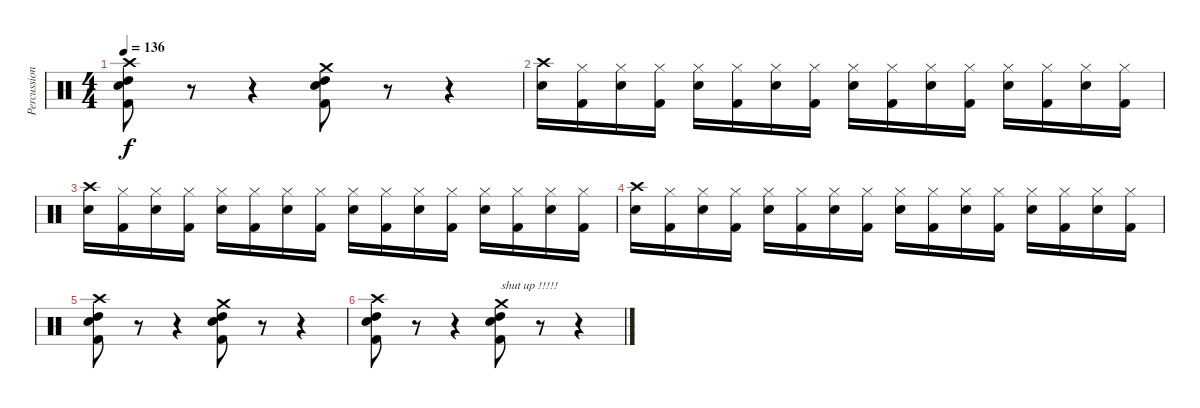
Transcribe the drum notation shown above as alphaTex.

\track ("Percussion" "Percussion") {instrument percussion}
\staff {score}
\articulation defaults
\ts (4 4)
\tempo 136
\clef neutral
\ks c
("Crash high (hit)" "Snare (hit) 2" "Kick (hit) 2" "High Tom (hit)").8{dy f} r.8 r.4 ("Crash medium (hit)" "Snare (hit) 2" "Kick (hit) 2" "High Tom (hit)").8 r.8 r.4 |
("Crash high (hit)" "Snare (hit) 2").16 ("Hi-Hat (closed)" "Kick (hit) 2").16 ("Hi-Hat (closed)" "Snare (hit) 2").16 ("Hi-Hat (closed)" "Kick (hit) 2").16 ("Hi-Hat (closed)" "Snare (hit) 2").16 ("Hi-Hat (closed)" "Kick (hit) 2").16 ("Hi-Hat (closed)" "Snare (hit) 2").16 ("Hi-Hat (closed)" "Kick (hit) 2").16 ("Hi-Hat (closed)" "Snare (hit) 2").16 ("Hi-Hat (closed)" "Kick (hit) 2").16 ("Hi-Hat (closed)" "Snare (hit) 2").16 ("Hi-Hat (closed)" "Kick (hit) 2").16 ("Hi-Hat (closed)" "Snare (hit) 2").16 ("Hi-Hat (closed)" "Kick (hit) 2").16 ("Hi-Hat (closed)" "Snare (hit) 2").16 ("Hi-Hat (closed)" "Kick (hit) 2").16 |
("Crash high (hit)" "Snare (hit) 2").16 ("Hi-Hat (closed)" "Kick (hit) 2").16 ("Hi-Hat (closed)" "Snare (hit) 2").16 ("Hi-Hat (closed)" "Kick (hit) 2").16 ("Hi-Hat (closed)" "Snare (hit) 2").16 ("Hi-Hat (closed)" "Kick (hit) 2").16 ("Hi-Hat (closed)" "Snare (hit) 2").16 ("Hi-Hat (closed)" "Kick (hit) 2").16 ("Hi-Hat (closed)" "Snare (hit) 2").16 ("Hi-Hat (closed)" "Kick (hit) 2").16 ("Hi-Hat (closed)" "Snare (hit) 2").16 ("Hi-Hat (closed)" "Kick (hit) 2").16 ("Hi-Hat (closed)" "Snare (hit) 2").16 ("Hi-Hat (closed)" "Kick (hit) 2").16 ("Hi-Hat (closed)" "Snare (hit) 2").16 ("Hi-Hat (closed)" "Kick (hit) 2").16 |
("Crash high (hit)" "Snare (hit) 2").16 ("Hi-Hat (closed)" "Kick (hit) 2").16 ("Hi-Hat (closed)" "Snare (hit) 2").16 ("Hi-Hat (closed)" "Kick (hit) 2").16 ("Hi-Hat (closed)" "Snare (hit) 2").16 ("Hi-Hat (closed)" "Kick (hit) 2").16 ("Hi-Hat (closed)" "Snare (hit) 2").16 ("Hi-Hat (closed)" "Kick (hit) 2").16 ("Hi-Hat (closed)" "Snare (hit) 2").16 ("Hi-Hat (closed)" "Kick (hit) 2").16 ("Hi-Hat (closed)" "Snare (hit) 2").16 ("Hi-Hat (closed)" "Kick (hit) 2").16 ("Hi-Hat (closed)" "Snare (hit) 2").16 ("Hi-Hat (closed)" "Kick (hit) 2").16 ("Hi-Hat (closed)" "Snare (hit) 2").16 ("Hi-Hat (closed)" "Kick (hit) 2").16 |
("Crash high (hit)" "Snare (hit) 2" "Kick (hit) 2" "High Tom (hit)").8 r.8 r.4 ("Crash medium (hit)" "Snare (hit) 2" "Kick (hit) 2" "High Tom (hit)").8 r.8 r.4 |
("Crash high (hit)" "Snare (hit) 2" "Kick (hit) 2" "High Tom (hit)").8 r.8 r.4 ("Crash medium (hit)" "Snare (hit) 2" "Kick (hit) 2" "High Tom (hit)").8{txt "shut up !!!!!"} r.8 r.4
